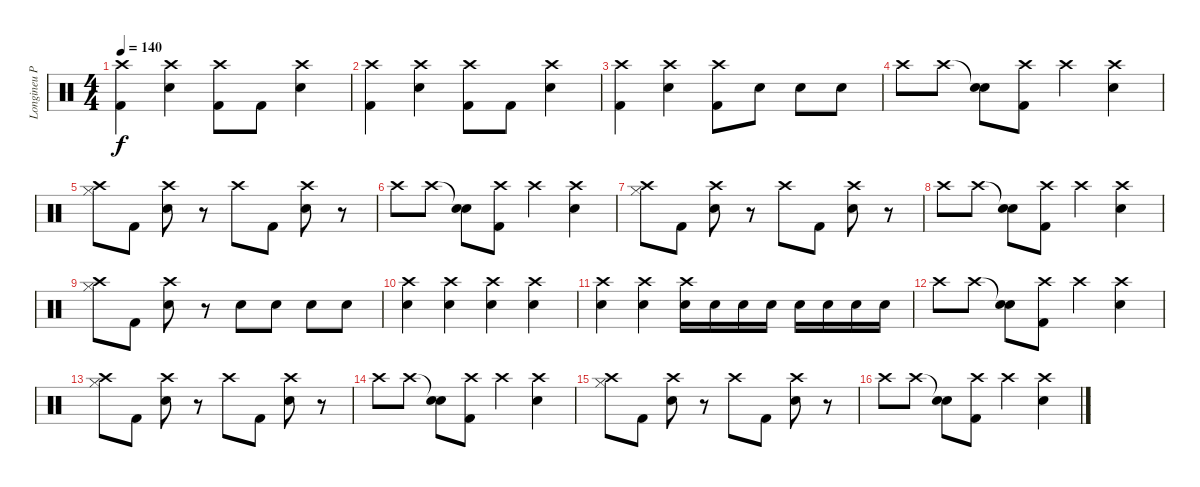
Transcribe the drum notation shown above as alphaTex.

\track ("Longineu Parsons III Drums" "Longineu P") {instrument percussion}
\staff {score}
\articulation defaults
\ts (4 4)
\tempo 140
\clef neutral
\ks c
("Crash high (hit)" "Kick (hit) 2").4{dy f} ("Crash high (hit)" "Snare (hit) 2").4 ("Crash high (hit)" "Kick (hit) 2").8 "Kick (hit) 2".8 ("Crash high (hit)" "Snare (hit) 2").4 |
("Crash high (hit)" "Kick (hit) 2").4 ("Crash high (hit)" "Snare (hit) 2").4 ("Crash high (hit)" "Kick (hit) 2").8 "Kick (hit) 2".8 ("Crash high (hit)" "Snare (hit) 2").4 |
("Crash high (hit)" "Kick (hit) 2").4 ("Crash high (hit)" "Snare (hit) 2").4 ("Crash high (hit)" "Kick (hit) 2").8 "Snare (hit) 2".8 "Snare (hit) 2".8 "Snare (hit) 2".8 |
"Crash high (hit)".8 "Crash high (hit)".8 ("Snare (hit)"{t} "Snare (hit) 2").8 ("Crash high (hit)" "Kick (hit) 2").8 "Crash high (hit)".4 ("Crash high (hit)" "Snare (hit) 2").4 |
("Hi-Hat (closed)" "Crash high (hit)").8 "Kick (hit) 2".8 ("Crash high (hit)" "Snare (hit) 2").8 r.8 "Crash high (hit)".8 "Kick (hit) 2".8 ("Crash high (hit)" "Snare (hit) 2").8 r.8 |
"Crash high (hit)".8 "Crash high (hit)".8 ("Snare (hit)"{t} "Snare (hit) 2").8 ("Crash high (hit)" "Kick (hit) 2").8 "Crash high (hit)".4 ("Crash high (hit)" "Snare (hit) 2").4 |
("Hi-Hat (closed)" "Crash high (hit)").8 "Kick (hit) 2".8 ("Crash high (hit)" "Snare (hit) 2").8 r.8 "Crash high (hit)".8 "Kick (hit) 2".8 ("Crash high (hit)" "Snare (hit) 2").8 r.8 |
"Crash high (hit)".8 "Crash high (hit)".8 ("Snare (hit)"{t} "Snare (hit) 2").8 ("Crash high (hit)" "Kick (hit) 2").8 "Crash high (hit)".4 ("Crash high (hit)" "Snare (hit) 2").4 |
("Hi-Hat (closed)" "Crash high (hit)").8 "Kick (hit) 2".8 ("Crash high (hit)" "Snare (hit) 2").8 r.8 "Snare (hit) 2".8 "Snare (hit) 2".8 "Snare (hit) 2".8 "Snare (hit) 2".8 |
("Crash high (hit)" "Snare (hit) 2").4 ("Crash high (hit)" "Snare (hit) 2").4 ("Crash high (hit)" "Snare (hit) 2").4 ("Crash high (hit)" "Snare (hit) 2").4 |
("Crash high (hit)" "Snare (hit) 2").4 ("Crash high (hit)" "Snare (hit) 2").4 ("Crash high (hit)" "Snare (hit) 2").16 "Snare (hit) 2".16 "Snare (hit) 2".16 "Snare (hit) 2".16 "Snare (hit) 2".16 "Snare (hit) 2".16 "Snare (hit) 2".16 "Snare (hit) 2".16 |
"Crash high (hit)".8 "Crash high (hit)".8 ("Snare (hit)"{t} "Snare (hit) 2").8 ("Crash high (hit)" "Kick (hit) 2").8 "Crash high (hit)".4 ("Crash high (hit)" "Snare (hit) 2").4 |
("Hi-Hat (closed)" "Crash high (hit)").8 "Kick (hit) 2".8 ("Crash high (hit)" "Snare (hit) 2").8 r.8 "Crash high (hit)".8 "Kick (hit) 2".8 ("Crash high (hit)" "Snare (hit) 2").8 r.8 |
"Crash high (hit)".8 "Crash high (hit)".8 ("Snare (hit)"{t} "Snare (hit) 2").8 ("Crash high (hit)" "Kick (hit) 2").8 "Crash high (hit)".4 ("Crash high (hit)" "Snare (hit) 2").4 |
("Hi-Hat (closed)" "Crash high (hit)").8 "Kick (hit) 2".8 ("Crash high (hit)" "Snare (hit) 2").8 r.8 "Crash high (hit)".8 "Kick (hit) 2".8 ("Crash high (hit)" "Snare (hit) 2").8 r.8 |
"Crash high (hit)".8 "Crash high (hit)".8 ("Snare (hit)"{t} "Snare (hit) 2").8 ("Crash high (hit)" "Kick (hit) 2").8 "Crash high (hit)".4 ("Crash high (hit)" "Snare (hit) 2").4
